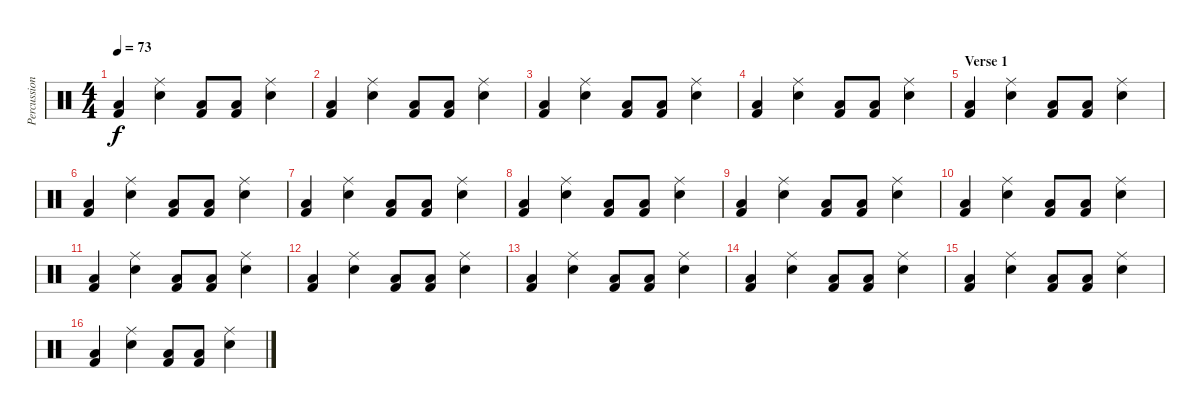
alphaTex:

\track ("Percussion" "Percussion") {instrument percussion}
\staff {score}
\articulation defaults
\ts (4 4)
\tempo 73
\clef neutral
\ks c
("Low Floor Tom (hit)" "Kick (hit) 2").4{dy f} ("Ride (middle)" "Electric Snare (hit)").4 ("Low Floor Tom (hit)" "Kick (hit) 2").8 ("Low Floor Tom (hit)" "Kick (hit) 2").8 ("Ride (middle)" "Electric Snare (hit)").4 |
("Low Floor Tom (hit)" "Kick (hit) 2").4 ("Ride (middle)" "Electric Snare (hit)").4 ("Low Floor Tom (hit)" "Kick (hit) 2").8 ("Low Floor Tom (hit)" "Kick (hit) 2").8 ("Ride (middle)" "Electric Snare (hit)").4 |
("Low Floor Tom (hit)" "Kick (hit) 2").4 ("Ride (middle)" "Electric Snare (hit)").4 ("Low Floor Tom (hit)" "Kick (hit) 2").8 ("Low Floor Tom (hit)" "Kick (hit) 2").8 ("Ride (middle)" "Electric Snare (hit)").4 |
("Low Floor Tom (hit)" "Kick (hit) 2").4 ("Ride (middle)" "Electric Snare (hit)").4 ("Low Floor Tom (hit)" "Kick (hit) 2").8 ("Low Floor Tom (hit)" "Kick (hit) 2").8 ("Ride (middle)" "Electric Snare (hit)").4 |
\section ("" "Verse 1")
("Low Floor Tom (hit)" "Kick (hit) 2").4 ("Ride (middle)" "Electric Snare (hit)").4 ("Low Floor Tom (hit)" "Kick (hit) 2").8 ("Low Floor Tom (hit)" "Kick (hit) 2").8 ("Ride (middle)" "Electric Snare (hit)").4 |
("Low Floor Tom (hit)" "Kick (hit) 2").4 ("Ride (middle)" "Electric Snare (hit)").4 ("Low Floor Tom (hit)" "Kick (hit) 2").8 ("Low Floor Tom (hit)" "Kick (hit) 2").8 ("Ride (middle)" "Electric Snare (hit)").4 |
("Low Floor Tom (hit)" "Kick (hit) 2").4 ("Ride (middle)" "Electric Snare (hit)").4 ("Low Floor Tom (hit)" "Kick (hit) 2").8 ("Low Floor Tom (hit)" "Kick (hit) 2").8 ("Ride (middle)" "Electric Snare (hit)").4 |
("Low Floor Tom (hit)" "Kick (hit) 2").4 ("Ride (middle)" "Electric Snare (hit)").4 ("Low Floor Tom (hit)" "Kick (hit) 2").8 ("Low Floor Tom (hit)" "Kick (hit) 2").8 ("Ride (middle)" "Electric Snare (hit)").4 |
("Low Floor Tom (hit)" "Kick (hit) 2").4 ("Ride (middle)" "Electric Snare (hit)").4 ("Low Floor Tom (hit)" "Kick (hit) 2").8 ("Low Floor Tom (hit)" "Kick (hit) 2").8 ("Ride (middle)" "Electric Snare (hit)").4 |
("Low Floor Tom (hit)" "Kick (hit) 2").4 ("Ride (middle)" "Electric Snare (hit)").4 ("Low Floor Tom (hit)" "Kick (hit) 2").8 ("Low Floor Tom (hit)" "Kick (hit) 2").8 ("Ride (middle)" "Electric Snare (hit)").4 |
("Low Floor Tom (hit)" "Kick (hit) 2").4 ("Ride (middle)" "Electric Snare (hit)").4 ("Low Floor Tom (hit)" "Kick (hit) 2").8 ("Low Floor Tom (hit)" "Kick (hit) 2").8 ("Ride (middle)" "Electric Snare (hit)").4 |
("Low Floor Tom (hit)" "Kick (hit) 2").4 ("Ride (middle)" "Electric Snare (hit)").4 ("Low Floor Tom (hit)" "Kick (hit) 2").8 ("Low Floor Tom (hit)" "Kick (hit) 2").8 ("Ride (middle)" "Electric Snare (hit)").4 |
("Low Floor Tom (hit)" "Kick (hit) 2").4 ("Ride (middle)" "Electric Snare (hit)").4 ("Low Floor Tom (hit)" "Kick (hit) 2").8 ("Low Floor Tom (hit)" "Kick (hit) 2").8 ("Ride (middle)" "Electric Snare (hit)").4 |
("Low Floor Tom (hit)" "Kick (hit) 2").4 ("Ride (middle)" "Electric Snare (hit)").4 ("Low Floor Tom (hit)" "Kick (hit) 2").8 ("Low Floor Tom (hit)" "Kick (hit) 2").8 ("Ride (middle)" "Electric Snare (hit)").4 |
("Low Floor Tom (hit)" "Kick (hit) 2").4 ("Ride (middle)" "Electric Snare (hit)").4 ("Low Floor Tom (hit)" "Kick (hit) 2").8 ("Low Floor Tom (hit)" "Kick (hit) 2").8 ("Ride (middle)" "Electric Snare (hit)").4 |
("Low Floor Tom (hit)" "Kick (hit) 2").4 ("Ride (middle)" "Electric Snare (hit)").4 ("Low Floor Tom (hit)" "Kick (hit) 2").8 ("Low Floor Tom (hit)" "Kick (hit) 2").8 ("Ride (middle)" "Electric Snare (hit)").4
